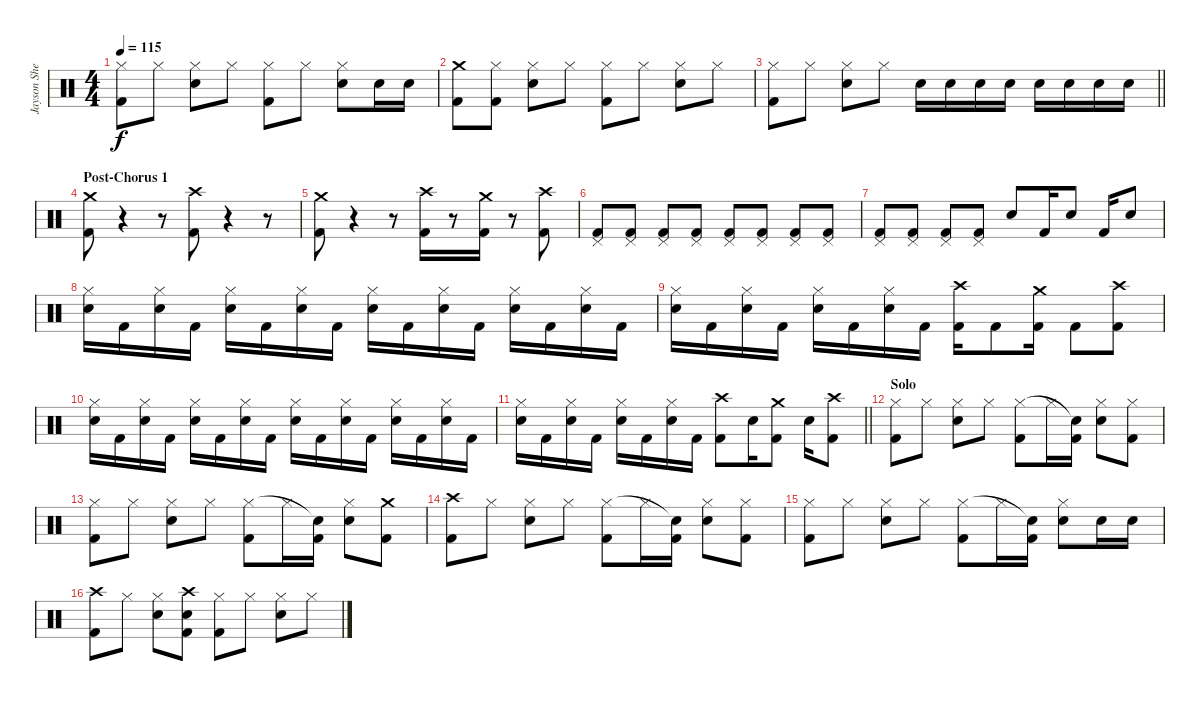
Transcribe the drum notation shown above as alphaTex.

\track ("Jayson Sherlock" "Jayson She") {instrument percussion}
\staff {score}
\articulation defaults
\ts (4 4)
\tempo 115
\clef neutral
\ks c
("Kick (hit) 2" "Hi-Hat (closed)").8{dy f} "Hi-Hat (closed)".8 ("Hi-Hat (closed)" "Snare (hit) 2").8 "Hi-Hat (closed)".8 ("Kick (hit) 2" "Hi-Hat (closed)").8 "Hi-Hat (closed)".8 ("Hi-Hat (closed)" "Snare (hit) 2").8 "Snare (hit) 2".16 "Snare (hit) 2".16 |
("Kick (hit) 2" "Crash medium (hit)").8 ("Kick (hit) 2" "Hi-Hat (closed)").8 ("Hi-Hat (closed)" "Snare (hit) 2").8 "Hi-Hat (closed)".8 ("Kick (hit) 2" "Hi-Hat (closed)").8 "Hi-Hat (closed)".8 ("Hi-Hat (closed)" "Snare (hit) 2").8 "Hi-Hat (closed)".8 |
\barLineRight lightlight
("Kick (hit) 2" "Hi-Hat (closed)").8 "Hi-Hat (closed)".8 ("Hi-Hat (closed)" "Snare (hit) 2").8 "Hi-Hat (closed)".8 "Snare (hit) 2".16 "Snare (hit) 2".16 "Snare (hit) 2".16 "Snare (hit) 2".16 "Snare (hit) 2".16 "Snare (hit) 2".16 "Snare (hit) 2".16 "Snare (hit) 2".16 |
\section ("" "Post-Chorus 1")
("Kick (hit) 2" "Crash medium (hit)").8 r.4 r.8 ("Kick (hit) 2" "Crash high (hit)").8 r.4 r.8 |
("Kick (hit) 2" "Crash medium (hit)").8 r.4 r.8 ("Kick (hit) 2" "Crash high (hit)").16 r.8 ("Kick (hit) 2" "Crash medium (hit)").16 r.8 ("Kick (hit) 2" "Crash high (hit)").8 |
("Kick (hit) 2" "Pedal Hi-Hat (hit)").8 ("Kick (hit) 2" "Pedal Hi-Hat (hit)").8 ("Kick (hit) 2" "Pedal Hi-Hat (hit)").8 ("Kick (hit) 2" "Pedal Hi-Hat (hit)").8 ("Kick (hit) 2" "Pedal Hi-Hat (hit)").8 ("Kick (hit) 2" "Pedal Hi-Hat (hit)").8 ("Kick (hit) 2" "Pedal Hi-Hat (hit)").8 ("Kick (hit) 2" "Pedal Hi-Hat (hit)").8 |
("Kick (hit) 2" "Pedal Hi-Hat (hit)").8 ("Kick (hit) 2" "Pedal Hi-Hat (hit)").8 ("Kick (hit) 2" "Pedal Hi-Hat (hit)").8 ("Kick (hit) 2" "Pedal Hi-Hat (hit)").8 "Snare (hit) 2".8 "Kick (hit) 2".16 "Snare (hit) 2".8 "Kick (hit) 2".16 "Snare (hit) 2".8 |
("Hi-Hat (closed)" "Snare (hit) 2").16 "Kick (hit) 2".16 ("Hi-Hat (closed)" "Snare (hit) 2").16 "Kick (hit) 2".16 ("Hi-Hat (closed)" "Snare (hit) 2").16 "Kick (hit) 2".16 ("Hi-Hat (closed)" "Snare (hit) 2").16 "Kick (hit) 2".16 ("Hi-Hat (closed)" "Snare (hit) 2").16 "Kick (hit) 2".16 ("Hi-Hat (closed)" "Snare (hit) 2").16 "Kick (hit) 2".16 ("Hi-Hat (closed)" "Snare (hit) 2").16 "Kick (hit) 2".16 ("Hi-Hat (closed)" "Snare (hit) 2").16 "Kick (hit) 2".16 |
("Hi-Hat (closed)" "Snare (hit) 2").16 "Kick (hit) 2".16 ("Hi-Hat (closed)" "Snare (hit) 2").16 "Kick (hit) 2".16 ("Hi-Hat (closed)" "Snare (hit) 2").16 "Kick (hit) 2".16 ("Hi-Hat (closed)" "Snare (hit) 2").16 "Kick (hit) 2".16 ("Kick (hit) 2" "Crash high (hit)").16 "Kick (hit) 2".8 ("Kick (hit) 2" "Crash medium (hit)").16 "Kick (hit) 2".8 ("Kick (hit) 2" "Crash high (hit)").8 |
("Hi-Hat (closed)" "Snare (hit) 2").16 "Kick (hit) 2".16 ("Hi-Hat (closed)" "Snare (hit) 2").16 "Kick (hit) 2".16 ("Hi-Hat (closed)" "Snare (hit) 2").16 "Kick (hit) 2".16 ("Hi-Hat (closed)" "Snare (hit) 2").16 "Kick (hit) 2".16 ("Hi-Hat (closed)" "Snare (hit) 2").16 "Kick (hit) 2".16 ("Hi-Hat (closed)" "Snare (hit) 2").16 "Kick (hit) 2".16 ("Hi-Hat (closed)" "Snare (hit) 2").16 "Kick (hit) 2".16 ("Hi-Hat (closed)" "Snare (hit) 2").16 "Kick (hit) 2".16 |
\barLineRight lightlight
("Hi-Hat (closed)" "Snare (hit) 2").16 "Kick (hit) 2".16 ("Hi-Hat (closed)" "Snare (hit) 2").16 "Kick (hit) 2".16 ("Hi-Hat (closed)" "Snare (hit) 2").16 "Kick (hit) 2".16 ("Hi-Hat (closed)" "Snare (hit) 2").16 "Kick (hit) 2".16 ("Kick (hit) 2" "Crash high (hit)").8 "Snare (hit) 2".16 ("Kick (hit) 2" "Crash medium (hit)").8 "Snare (hit) 2".16 ("Kick (hit) 2" "Crash high (hit)").8 |
\section ("" "Solo")
("Kick (hit) 2" "Hi-Hat (closed)").8 "Hi-Hat (closed)".8 ("Hi-Hat (closed)" "Snare (hit) 2").8 "Hi-Hat (closed)".8 ("Kick (hit) 2" "Hi-Hat (closed)").8 "Hi-Hat (closed)".16 ("Kick (hit) 2" "Snare (hit)"{t}).16 ("Hi-Hat (closed)" "Snare (hit) 2").8 ("Kick (hit) 2" "Hi-Hat (closed)").8 |
("Kick (hit) 2" "Hi-Hat (closed)").8 "Hi-Hat (closed)".8 ("Hi-Hat (closed)" "Snare (hit) 2").8 "Hi-Hat (closed)".8 ("Kick (hit) 2" "Hi-Hat (closed)").8 "Hi-Hat (closed)".16 ("Kick (hit) 2" "Snare (hit)"{t}).16 ("Hi-Hat (closed)" "Snare (hit) 2").8 ("Kick (hit) 2" "Crash medium (hit)").8 |
("Kick (hit) 2" "Crash high (hit)").8 "Hi-Hat (closed)".8 ("Hi-Hat (closed)" "Snare (hit) 2").8 "Hi-Hat (closed)".8 ("Kick (hit) 2" "Hi-Hat (closed)").8 "Hi-Hat (closed)".16 ("Kick (hit) 2" "Snare (hit)"{t}).16 ("Hi-Hat (closed)" "Snare (hit) 2").8 ("Kick (hit) 2" "Hi-Hat (closed)").8 |
("Kick (hit) 2" "Hi-Hat (closed)").8 "Hi-Hat (closed)".8 ("Hi-Hat (closed)" "Snare (hit) 2").8 "Hi-Hat (closed)".8 ("Kick (hit) 2" "Hi-Hat (closed)").8 "Hi-Hat (closed)".16 ("Kick (hit) 2" "Snare (hit)"{t}).16 ("Hi-Hat (closed)" "Snare (hit) 2").8 "Snare (hit) 2".16 "Snare (hit) 2".16 |
("Kick (hit) 2" "Crash high (hit)").8 "Hi-Hat (closed)".8 ("Hi-Hat (closed)" "Snare (hit) 2").8 ("Kick (hit) 2" "Snare (hit) 2" "Crash high (hit)").8 ("Kick (hit) 2" "Hi-Hat (closed)").8 "Hi-Hat (closed)".8 ("Hi-Hat (closed)" "Snare (hit) 2").8 "Hi-Hat (closed)".8
